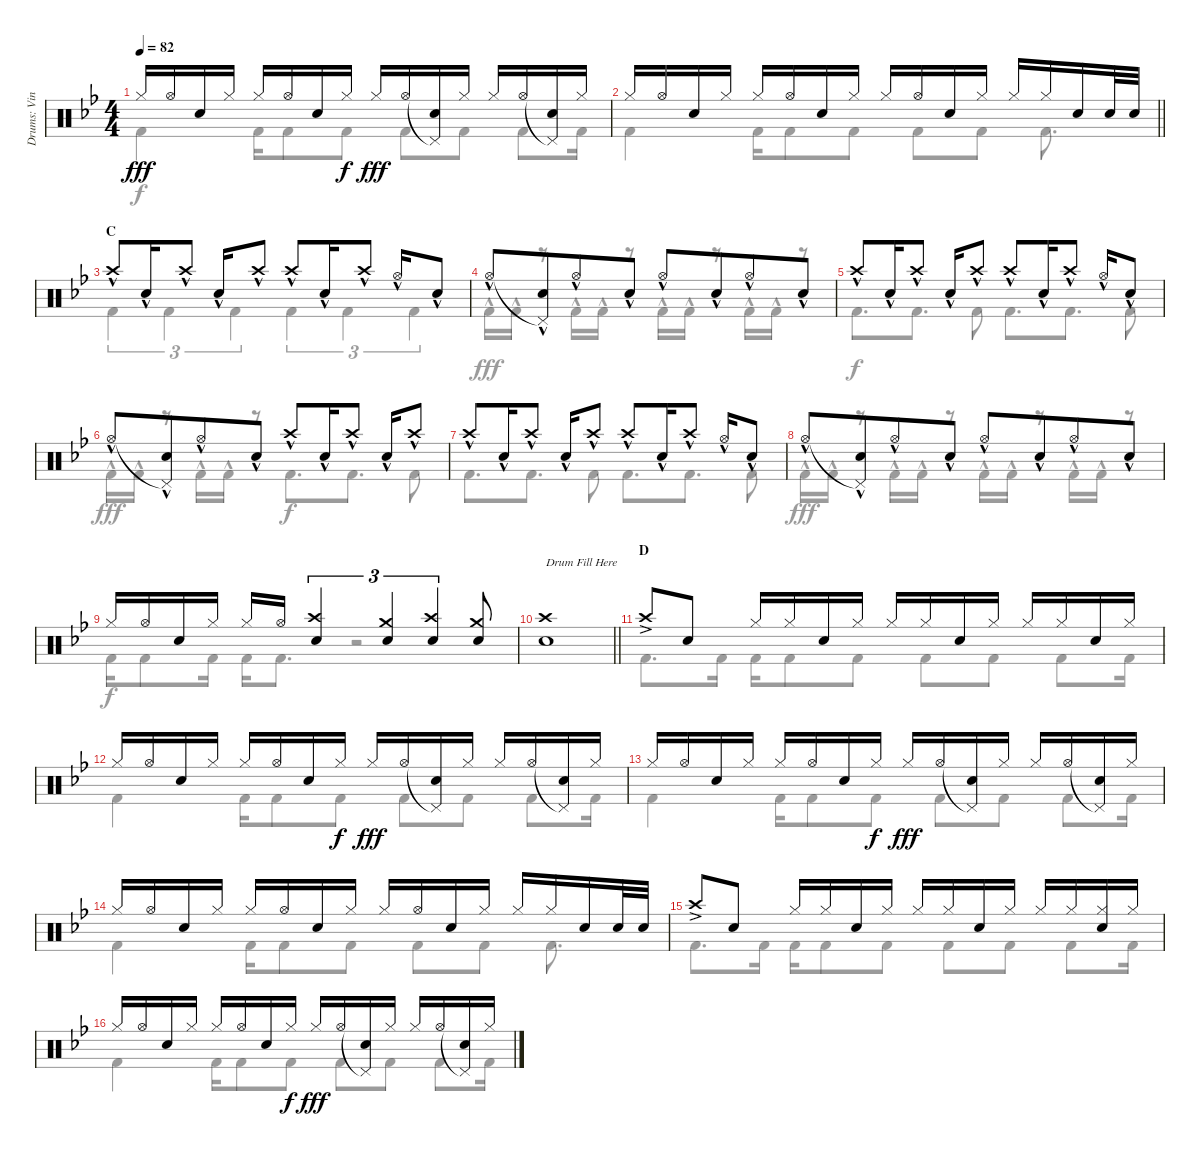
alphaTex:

\track ("Drums: Vinny" "Drums: Vin") {instrument percussion}
\staff {score}
\articulation defaults
\voice
\ts (4 4)
\tempo 82
\clef neutral
\ks bb "Hi-Hat (closed)".16{dy fff} "Hi-Hat (open)".16 "Snare (hit) 2".16 "Hi-Hat (closed)".16 "Hi-Hat (closed)".16 "Hi-Hat (open)".16 "Snare (hit) 2".16 "Hi-Hat (closed)".16{dy f} "Hi-Hat (closed)".16{dy fff} "Hi-Hat (open)".16
("Pedal Hi-Hat (hit)"{t} "Snare (hit) 2").16 "Hi-Hat (closed)".16 "Hi-Hat (closed)".16 "Hi-Hat (open)".16 ("Pedal Hi-Hat (hit)"{t} "Snare (hit) 2").16 "Hi-Hat (closed)".16 |
\barLineRight lightlight "Hi-Hat (closed)".16 "Hi-Hat (open)".16 "Snare (hit) 2".16 "Hi-Hat (closed)".16 "Hi-Hat (closed)".16 "Hi-Hat (open)".16 "Snare (hit) 2".16 "Hi-Hat (closed)".16 "Hi-Hat (closed)".16 "Hi-Hat (open)".16 "Snare (hit) 2".16 "Hi-Hat (closed)".16 "Hi-Hat (closed)".16 "Hi-Hat (closed)".16 "Snare (hit) 2".16 "Snare (hit) 2".32 "Snare (hit) 2".32
|
\section ("" "C")
"Crash high (hit)"{hac}.8 "Snare (hit) 2"{hac}.16 "Crash high (hit)"{hac}.8 "Snare (hit) 2"{hac}.16 "Crash high (hit)"{hac}.8 "Crash high (hit)"{hac}.8 "Snare (hit) 2"{hac}.16 "Crash high (hit)"{hac}.8 "Hi-Hat (open)"{hac}.16 "Snare (hit) 2"{hac}.8 |
"Hi-Hat (open)"{hac}.8 ("Pedal Hi-Hat (hit)"{t} "Snare (hit) 2"{hac}).8{beam merge} "Hi-Hat (open)"{hac}.8 "Snare (hit) 2"{hac}.8 "Hi-Hat (open)"{hac}.8 "Snare (hit) 2"{hac}.8{beam merge} "Hi-Hat (open)"{hac}.8 "Snare (hit) 2"{hac}.8 |
"Crash high (hit)"{hac}.8 "Snare (hit) 2"{hac}.16 "Crash high (hit)"{hac}.8 "Snare (hit) 2"{hac}.16 "Crash high (hit)"{hac}.8 "Crash high (hit)"{hac}.8 "Snare (hit) 2"{hac}.16 "Crash high (hit)"{hac}.8 "Hi-Hat (open)"{hac}.16 "Snare (hit) 2"{hac}.8 |
"Hi-Hat (open)"{hac}.8 ("Pedal Hi-Hat (hit)"{t} "Snare (hit) 2"{hac}).8{beam merge} "Hi-Hat (open)"{hac}.8 "Snare (hit) 2"{hac}.8 "Crash high (hit)"{hac}.8 "Snare (hit) 2"{hac}.16 "Crash high (hit)"{hac}.8 "Snare (hit) 2"{hac}.16 "Crash high (hit)"{hac}.8 |
"Crash high (hit)"{hac}.8 "Snare (hit) 2"{hac}.16 "Crash high (hit)"{hac}.8 "Snare (hit) 2"{hac}.16 "Crash high (hit)"{hac}.8 "Crash high (hit)"{hac}.8 "Snare (hit) 2"{hac}.16 "Crash high (hit)"{hac}.8 "Hi-Hat (open)"{hac}.16 "Snare (hit) 2"{hac}.8 |
"Hi-Hat (open)"{hac}.8 ("Pedal Hi-Hat (hit)"{t} "Snare (hit) 2"{hac}).8{beam merge} "Hi-Hat (open)"{hac}.8 "Snare (hit) 2"{hac}.8 "Hi-Hat (open)"{hac}.8 "Snare (hit) 2"{hac}.8{beam merge} "Hi-Hat (open)"{hac}.8 "Snare (hit) 2"{hac}.8 |
"Hi-Hat (closed)".16 "Hi-Hat (open)".16 "Snare (hit) 2".16 "Hi-Hat (closed)".16 "Hi-Hat (closed)".16 "Hi-Hat (open)".16 ("Crash high (hit)" "Snare (hit) 2").4{tu (3 2)} ("Crash medium (hit)" "Snare (hit) 2").4{tu (3 2)} ("Crash high (hit)" "Snare (hit) 2").4{tu (3 2)} ("Crash medium (hit)" "Snare (hit) 2").8 |
\barLineRight lightlight
("Crash high (hit)" "Snare (hit) 2").1{txt "Drum Fill Here"} |
\section ("" "D")
"Crash high (hit)"{ac}.8 "Snare (hit) 2".8 "Hi-Hat (closed)".16 "Hi-Hat (closed)".16 "Snare (hit) 2".16 "Hi-Hat (closed)".16 "Hi-Hat (closed)".16 "Hi-Hat (closed)".16 "Snare (hit) 2".16 "Hi-Hat (closed)".16 "Hi-Hat (closed)".16 "Hi-Hat (closed)".16 "Snare (hit) 2".16 "Hi-Hat (closed)".16 |
"Hi-Hat (closed)".16 "Hi-Hat (open)".16 "Snare (hit) 2".16 "Hi-Hat (closed)".16 "Hi-Hat (closed)".16 "Hi-Hat (open)".16 "Snare (hit) 2".16 "Hi-Hat (closed)".16{dy f} "Hi-Hat (closed)".16{dy fff} "Hi-Hat (open)".16 ("Pedal Hi-Hat (hit)"{t} "Snare (hit) 2").16 "Hi-Hat (closed)".16 "Hi-Hat (closed)".16 "Hi-Hat (open)".16 ("Pedal Hi-Hat (hit)"{t} "Snare (hit) 2").16 "Hi-Hat (closed)".16 |
"Hi-Hat (closed)".16 "Hi-Hat (open)".16 "Snare (hit) 2".16 "Hi-Hat (closed)".16 "Hi-Hat (closed)".16 "Hi-Hat (open)".16 "Snare (hit) 2".16 "Hi-Hat (closed)".16{dy f} "Hi-Hat (closed)".16{dy fff} "Hi-Hat (open)".16 ("Pedal Hi-Hat (hit)"{t} "Snare (hit) 2").16 "Hi-Hat (closed)".16 "Hi-Hat (closed)".16 "Hi-Hat (open)".16 ("Pedal Hi-Hat (hit)"{t} "Snare (hit) 2").16 "Hi-Hat (closed)".16 |
"Hi-Hat (closed)".16 "Hi-Hat (open)".16 "Snare (hit) 2".16 "Hi-Hat (closed)".16 "Hi-Hat (closed)".16 "Hi-Hat (open)".16 "Snare (hit) 2".16 "Hi-Hat (closed)".16 "Hi-Hat (closed)".16 "Hi-Hat (open)".16 "Snare (hit) 2".16 "Hi-Hat (closed)".16 "Hi-Hat (closed)".16 "Hi-Hat (closed)".16 "Snare (hit) 2".16 "Snare (hit) 2".32 "Snare (hit) 2".32 |
"Crash high (hit)"{ac}.8 "Snare (hit) 2".8 "Hi-Hat (closed)".16 "Hi-Hat (closed)".16 "Snare (hit) 2".16 "Hi-Hat (closed)".16 "Hi-Hat (closed)".16 "Hi-Hat (closed)".16 "Snare (hit) 2".16 "Hi-Hat (closed)".16 "Hi-Hat (closed)".16 "Hi-Hat (closed)".16 ("Hi-Hat (closed)" "Snare (hit) 2").16 "Hi-Hat (closed)".16 |
"Hi-Hat (closed)".16 "Hi-Hat (open)".16 "Snare (hit) 2".16 "Hi-Hat (closed)".16 "Hi-Hat (closed)".16 "Hi-Hat (open)".16 "Snare (hit) 2".16 "Hi-Hat (closed)".16{dy f} "Hi-Hat (closed)".16{dy fff} "Hi-Hat (open)".16 ("Pedal Hi-Hat (hit)"{t} "Snare (hit) 2").16 "Hi-Hat (closed)".16 "Hi-Hat (closed)".16 "Hi-Hat (open)".16 ("Pedal Hi-Hat (hit)"{t} "Snare (hit) 2").16 "Hi-Hat (closed)".16
\voice
\clef neutral
\ottava regular
\simile none
\ks bb "Kick (hit) 2".4{dy f} "Kick (hit) 2".16 "Kick (hit) 2".8 "Kick (hit) 2".8 "Kick (hit) 2".8 "Kick (hit) 2".8 "Kick (hit) 2".8 "Kick (hit) 2".16
|
\barLineRight lightlight "Kick (hit) 2".4 "Kick (hit) 2".16 "Kick (hit) 2".8 "Kick (hit) 2".8 "Kick (hit) 2".8 "Kick (hit) 2".8 "Kick (hit) 2".8{d}
|
"Kick (hit) 2".4{tu (3 2)} "Kick (hit) 2".4{tu (3 2)} "Kick (hit) 2".4{tu (3 2)} "Kick (hit) 2".4{tu (3 2)} "Kick (hit) 2".4{tu (3 2)} "Kick (hit) 2".4{tu (3 2)} |
"Kick (hit) 2"{hac}.16{dy fff} "Kick (hit) 2"{hac}.16 r.8 "Kick (hit) 2"{hac}.16 "Kick (hit) 2"{hac}.16 r.8 "Kick (hit) 2"{hac}.16 "Kick (hit) 2"{hac}.16 r.8 "Kick (hit) 2"{hac}.16 "Kick (hit) 2"{hac}.16 r.8 |
"Kick (hit) 2".8{d dy f} "Kick (hit) 2".8{d} "Kick (hit) 2".8 "Kick (hit) 2".8{d} "Kick (hit) 2".8{d} "Kick (hit) 2".8 |
"Kick (hit) 2"{hac}.16{dy fff} "Kick (hit) 2"{hac}.16 r.8 "Kick (hit) 2"{hac}.16 "Kick (hit) 2"{hac}.16 r.8 "Kick (hit) 2".8{d dy f} "Kick (hit) 2".8{d} "Kick (hit) 2".8 |
"Kick (hit) 2".8{d} "Kick (hit) 2".8{d} "Kick (hit) 2".8 "Kick (hit) 2".8{d} "Kick (hit) 2".8{d} "Kick (hit) 2".8 |
"Kick (hit) 2"{hac}.16{dy fff} "Kick (hit) 2"{hac}.16 r.8 "Kick (hit) 2"{hac}.16 "Kick (hit) 2"{hac}.16 r.8 "Kick (hit) 2"{hac}.16 "Kick (hit) 2"{hac}.16 r.8 "Kick (hit) 2"{hac}.16 "Kick (hit) 2"{hac}.16 r.8 |
"Kick (hit) 2".16{dy f} "Kick (hit) 2".8 "Kick (hit) 2".16 "Kick (hit) 2".16 "Kick (hit) 2".8{d} r.2 |
\barLineRight lightlight
|
"Kick (hit) 2".8{d} "Kick (hit) 2".16 "Kick (hit) 2".16 "Kick (hit) 2".8 "Kick (hit) 2".8 "Kick (hit) 2".8 "Kick (hit) 2".8 "Kick (hit) 2".8 "Kick (hit) 2".16 |
"Kick (hit) 2".4 "Kick (hit) 2".16 "Kick (hit) 2".8 "Kick (hit) 2".8 "Kick (hit) 2".8 "Kick (hit) 2".8 "Kick (hit) 2".8 "Kick (hit) 2".16 |
"Kick (hit) 2".4 "Kick (hit) 2".16 "Kick (hit) 2".8 "Kick (hit) 2".8 "Kick (hit) 2".8 "Kick (hit) 2".8 "Kick (hit) 2".8 "Kick (hit) 2".16 |
"Kick (hit) 2".4 "Kick (hit) 2".16 "Kick (hit) 2".8 "Kick (hit) 2".8 "Kick (hit) 2".8 "Kick (hit) 2".8 "Kick (hit) 2".8{d} |
"Kick (hit) 2".8{d} "Kick (hit) 2".16 "Kick (hit) 2".16 "Kick (hit) 2".8 "Kick (hit) 2".8 "Kick (hit) 2".8 "Kick (hit) 2".8 "Kick (hit) 2".8 "Kick (hit) 2".16 |
"Kick (hit) 2".4 "Kick (hit) 2".16 "Kick (hit) 2".8 "Kick (hit) 2".8 "Kick (hit) 2".8 "Kick (hit) 2".8 "Kick (hit) 2".8 "Kick (hit) 2".16
